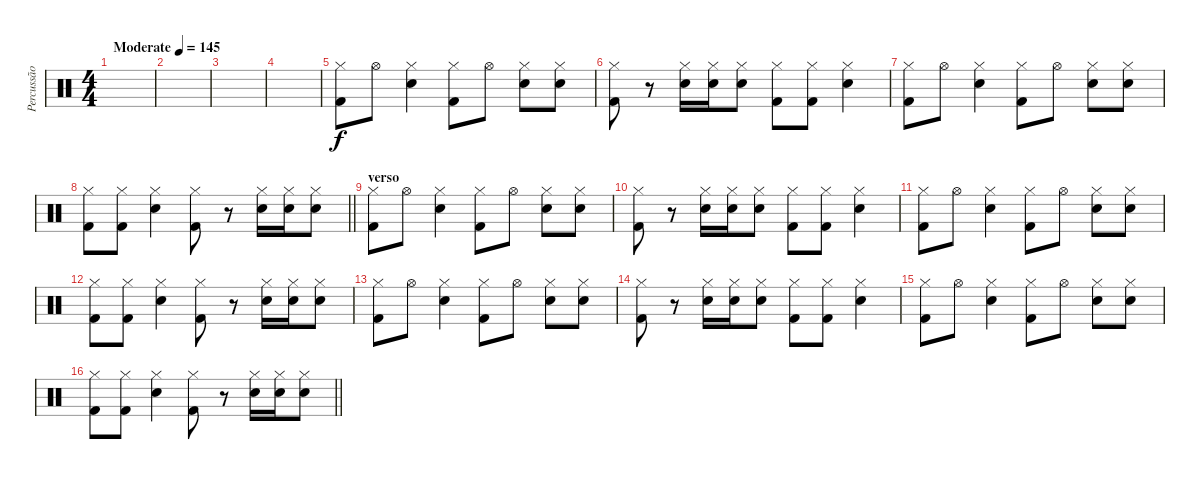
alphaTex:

\track ("Percussão" "Percussão") {instrument percussion}
\staff {score}
\articulation defaults
\ts (4 4)
\tempo (145 "Moderate")
\clef neutral
\ks c
|
|
|
|
("Hi-Hat (closed)" "Kick (hit) 2").8 "Hi-Hat (open)".8 ("Hi-Hat (closed)" "Snare (hit) 2").4 ("Hi-Hat (closed)" "Kick (hit) 2").8 "Hi-Hat (open)".8 ("Hi-Hat (closed)" "Snare (hit) 2").8 ("Hi-Hat (closed)" "Snare (hit) 2").8 |
("Hi-Hat (closed)" "Kick (hit) 2").8 r.8 ("Hi-Hat (closed)" "Snare (hit) 2").16 ("Hi-Hat (closed)" "Snare (hit) 2").16 ("Hi-Hat (closed)" "Snare (hit) 2").8 ("Hi-Hat (closed)" "Kick (hit) 2").8 ("Hi-Hat (closed)" "Kick (hit) 2").8 ("Hi-Hat (closed)" "Snare (hit) 2").4 |
("Hi-Hat (closed)" "Kick (hit) 2").8 "Hi-Hat (open)".8 ("Hi-Hat (closed)" "Snare (hit) 2").4 ("Hi-Hat (closed)" "Kick (hit) 2").8 "Hi-Hat (open)".8 ("Hi-Hat (closed)" "Snare (hit) 2").8 ("Hi-Hat (closed)" "Snare (hit) 2").8 |
\barLineRight lightlight
("Hi-Hat (closed)" "Kick (hit) 2").8 ("Hi-Hat (closed)" "Kick (hit) 2").8 ("Hi-Hat (closed)" "Snare (hit) 2").4 ("Hi-Hat (closed)" "Kick (hit) 2").8 r.8 ("Hi-Hat (closed)" "Snare (hit) 2").16 ("Hi-Hat (closed)" "Snare (hit) 2").16 ("Hi-Hat (closed)" "Snare (hit) 2").8 |
\section ("" "verso")
("Hi-Hat (closed)" "Kick (hit) 2").8 "Hi-Hat (open)".8 ("Hi-Hat (closed)" "Snare (hit) 2").4 ("Hi-Hat (closed)" "Kick (hit) 2").8 "Hi-Hat (open)".8 ("Hi-Hat (closed)" "Snare (hit) 2").8 ("Hi-Hat (closed)" "Snare (hit) 2").8 |
("Hi-Hat (closed)" "Kick (hit) 2").8 r.8 ("Hi-Hat (closed)" "Snare (hit) 2").16 ("Hi-Hat (closed)" "Snare (hit) 2").16 ("Hi-Hat (closed)" "Snare (hit) 2").8 ("Hi-Hat (closed)" "Kick (hit) 2").8 ("Hi-Hat (closed)" "Kick (hit) 2").8 ("Hi-Hat (closed)" "Snare (hit) 2").4 |
("Hi-Hat (closed)" "Kick (hit) 2").8 "Hi-Hat (open)".8 ("Hi-Hat (closed)" "Snare (hit) 2").4 ("Hi-Hat (closed)" "Kick (hit) 2").8 "Hi-Hat (open)".8 ("Hi-Hat (closed)" "Snare (hit) 2").8 ("Hi-Hat (closed)" "Snare (hit) 2").8 |
("Hi-Hat (closed)" "Kick (hit) 2").8 ("Hi-Hat (closed)" "Kick (hit) 2").8 ("Hi-Hat (closed)" "Snare (hit) 2").4 ("Hi-Hat (closed)" "Kick (hit) 2").8 r.8 ("Hi-Hat (closed)" "Snare (hit) 2").16 ("Hi-Hat (closed)" "Snare (hit) 2").16 ("Hi-Hat (closed)" "Snare (hit) 2").8 |
("Hi-Hat (closed)" "Kick (hit) 2").8 "Hi-Hat (open)".8 ("Hi-Hat (closed)" "Snare (hit) 2").4 ("Hi-Hat (closed)" "Kick (hit) 2").8 "Hi-Hat (open)".8 ("Hi-Hat (closed)" "Snare (hit) 2").8 ("Hi-Hat (closed)" "Snare (hit) 2").8 |
("Hi-Hat (closed)" "Kick (hit) 2").8 r.8 ("Hi-Hat (closed)" "Snare (hit) 2").16 ("Hi-Hat (closed)" "Snare (hit) 2").16 ("Hi-Hat (closed)" "Snare (hit) 2").8 ("Hi-Hat (closed)" "Kick (hit) 2").8 ("Hi-Hat (closed)" "Kick (hit) 2").8 ("Hi-Hat (closed)" "Snare (hit) 2").4 |
("Hi-Hat (closed)" "Kick (hit) 2").8 "Hi-Hat (open)".8 ("Hi-Hat (closed)" "Snare (hit) 2").4 ("Hi-Hat (closed)" "Kick (hit) 2").8 "Hi-Hat (open)".8 ("Hi-Hat (closed)" "Snare (hit) 2").8 ("Hi-Hat (closed)" "Snare (hit) 2").8 |
\barLineRight lightlight
("Hi-Hat (closed)" "Kick (hit) 2").8 ("Hi-Hat (closed)" "Kick (hit) 2").8 ("Hi-Hat (closed)" "Snare (hit) 2").4 ("Hi-Hat (closed)" "Kick (hit) 2").8 r.8 ("Hi-Hat (closed)" "Snare (hit) 2").16 ("Hi-Hat (closed)" "Snare (hit) 2").16 ("Hi-Hat (closed)" "Snare (hit) 2").8
